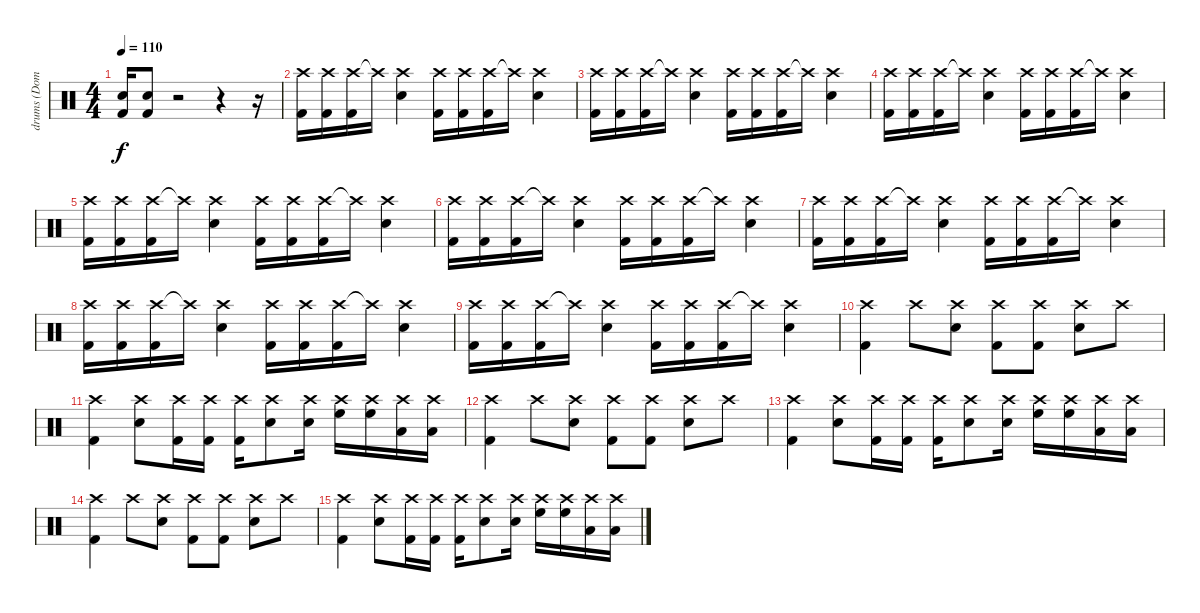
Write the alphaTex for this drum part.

\track ("drums (Dominic howard)" "drums (Dom") {instrument percussion}
\staff {score}
\articulation defaults
\ts (4 4)
\tempo 110
\clef neutral
\ks c
("Kick (hit) 2" "Snare (hit) 2").16{dy f volume 10} ("Kick (hit) 2" "Snare (hit) 2").8 r.2 r.4 r.16 |
("Crash high (hit)" "Kick (hit) 2").16 ("Crash high (hit)" "Kick (hit) 2").16 ("Crash high (hit)" "Kick (hit) 2").16 "Crash high (hit)"{t}.16 ("Crash high (hit)" "Electric Snare (hit)").4 ("Crash high (hit)" "Kick (hit) 2").16 ("Crash high (hit)" "Kick (hit) 2").16 ("Crash high (hit)" "Kick (hit) 2").16 "Crash high (hit)"{t}.16 ("Crash high (hit)" "Electric Snare (hit)").4 |
("Crash high (hit)" "Kick (hit) 2").16 ("Crash high (hit)" "Kick (hit) 2").16 ("Crash high (hit)" "Kick (hit) 2").16 "Crash high (hit)"{t}.16 ("Crash high (hit)" "Electric Snare (hit)").4 ("Crash high (hit)" "Kick (hit) 2").16 ("Crash high (hit)" "Kick (hit) 2").16 ("Crash high (hit)" "Kick (hit) 2").16 "Crash high (hit)"{t}.16 ("Crash high (hit)" "Electric Snare (hit)").4 |
("Crash high (hit)" "Kick (hit) 2").16 ("Crash high (hit)" "Kick (hit) 2").16 ("Crash high (hit)" "Kick (hit) 2").16 "Crash high (hit)"{t}.16 ("Crash high (hit)" "Electric Snare (hit)").4 ("Crash high (hit)" "Kick (hit) 2").16 ("Crash high (hit)" "Kick (hit) 2").16 ("Crash high (hit)" "Kick (hit) 2").16 "Crash high (hit)"{t}.16 ("Crash high (hit)" "Electric Snare (hit)").4 |
("Crash high (hit)" "Kick (hit) 2").16 ("Crash high (hit)" "Kick (hit) 2").16 ("Crash high (hit)" "Kick (hit) 2").16 "Crash high (hit)"{t}.16 ("Crash high (hit)" "Electric Snare (hit)").4 ("Crash high (hit)" "Kick (hit) 2").16 ("Crash high (hit)" "Kick (hit) 2").16 ("Crash high (hit)" "Kick (hit) 2").16 "Crash high (hit)"{t}.16 ("Crash high (hit)" "Electric Snare (hit)").4 |
("Crash high (hit)" "Kick (hit) 2").16 ("Crash high (hit)" "Kick (hit) 2").16 ("Crash high (hit)" "Kick (hit) 2").16 "Crash high (hit)"{t}.16 ("Crash high (hit)" "Electric Snare (hit)").4 ("Crash high (hit)" "Kick (hit) 2").16 ("Crash high (hit)" "Kick (hit) 2").16 ("Crash high (hit)" "Kick (hit) 2").16 "Crash high (hit)"{t}.16 ("Crash high (hit)" "Electric Snare (hit)").4 |
("Crash high (hit)" "Kick (hit) 2").16 ("Crash high (hit)" "Kick (hit) 2").16 ("Crash high (hit)" "Kick (hit) 2").16 "Crash high (hit)"{t}.16 ("Crash high (hit)" "Electric Snare (hit)").4 ("Crash high (hit)" "Kick (hit) 2").16 ("Crash high (hit)" "Kick (hit) 2").16 ("Crash high (hit)" "Kick (hit) 2").16 "Crash high (hit)"{t}.16 ("Crash high (hit)" "Electric Snare (hit)").4 |
("Crash high (hit)" "Kick (hit) 2").16 ("Crash high (hit)" "Kick (hit) 2").16 ("Crash high (hit)" "Kick (hit) 2").16 "Crash high (hit)"{t}.16 ("Crash high (hit)" "Electric Snare (hit)").4 ("Crash high (hit)" "Kick (hit) 2").16 ("Crash high (hit)" "Kick (hit) 2").16 ("Crash high (hit)" "Kick (hit) 2").16 "Crash high (hit)"{t}.16 ("Crash high (hit)" "Electric Snare (hit)").4 |
("Crash high (hit)" "Kick (hit) 2").16 ("Crash high (hit)" "Kick (hit) 2").16 ("Crash high (hit)" "Kick (hit) 2").16 "Crash high (hit)"{t}.16 ("Crash high (hit)" "Electric Snare (hit)").4 ("Crash high (hit)" "Kick (hit) 2").16 ("Crash high (hit)" "Kick (hit) 2").16 ("Crash high (hit)" "Kick (hit) 2").16 "Crash high (hit)"{t}.16 ("Crash high (hit)" "Electric Snare (hit)").4 |
("Crash high (hit)" "Kick (hit) 2").4 "Crash high (hit)".8 ("Crash high (hit)" "Snare (hit) 2").8 ("Crash high (hit)" "Kick (hit) 2").8 ("Crash high (hit)" "Kick (hit) 2").8 ("Crash high (hit)" "Snare (hit) 2").8 "Crash high (hit)".8 |
("Crash high (hit)" "Kick (hit) 2").4 ("Crash high (hit)" "Snare (hit) 2").8 ("Crash high (hit)" "Kick (hit) 2").16 ("Crash high (hit)" "Kick (hit) 2").16 ("Crash high (hit)" "Kick (hit) 2").16 ("Crash high (hit)" "Snare (hit) 2").8 ("Crash high (hit)" "Snare (hit) 2").16 ("Crash high (hit)" "High Floor Tom (hit)").16 ("Crash high (hit)" "High Floor Tom (hit)").16 ("Crash high (hit)" "Low Tom (hit)").16 ("Crash high (hit)" "Low Tom (hit)").16 |
("Crash high (hit)" "Kick (hit) 2").4 "Crash high (hit)".8 ("Crash high (hit)" "Snare (hit) 2").8 ("Crash high (hit)" "Kick (hit) 2").8 ("Crash high (hit)" "Kick (hit) 2").8 ("Crash high (hit)" "Snare (hit) 2").8 "Crash high (hit)".8 |
("Crash high (hit)" "Kick (hit) 2").4 ("Crash high (hit)" "Snare (hit) 2").8 ("Crash high (hit)" "Kick (hit) 2").16 ("Crash high (hit)" "Kick (hit) 2").16 ("Crash high (hit)" "Kick (hit) 2").16 ("Crash high (hit)" "Snare (hit) 2").8 ("Crash high (hit)" "Snare (hit) 2").16 ("Crash high (hit)" "High Floor Tom (hit)").16 ("Crash high (hit)" "High Floor Tom (hit)").16 ("Crash high (hit)" "Low Tom (hit)").16 ("Crash high (hit)" "Low Tom (hit)").16 |
("Crash high (hit)" "Kick (hit) 2").4 "Crash high (hit)".8 ("Crash high (hit)" "Snare (hit) 2").8 ("Crash high (hit)" "Kick (hit) 2").8 ("Crash high (hit)" "Kick (hit) 2").8 ("Crash high (hit)" "Snare (hit) 2").8 "Crash high (hit)".8 |
("Crash high (hit)" "Kick (hit) 2").4 ("Crash high (hit)" "Snare (hit) 2").8 ("Crash high (hit)" "Kick (hit) 2").16 ("Crash high (hit)" "Kick (hit) 2").16 ("Crash high (hit)" "Kick (hit) 2").16 ("Crash high (hit)" "Snare (hit) 2").8 ("Crash high (hit)" "Snare (hit) 2").16 ("Crash high (hit)" "High Floor Tom (hit)").16 ("Crash high (hit)" "High Floor Tom (hit)").16 ("Crash high (hit)" "Low Tom (hit)").16 ("Crash high (hit)" "Low Tom (hit)").16
